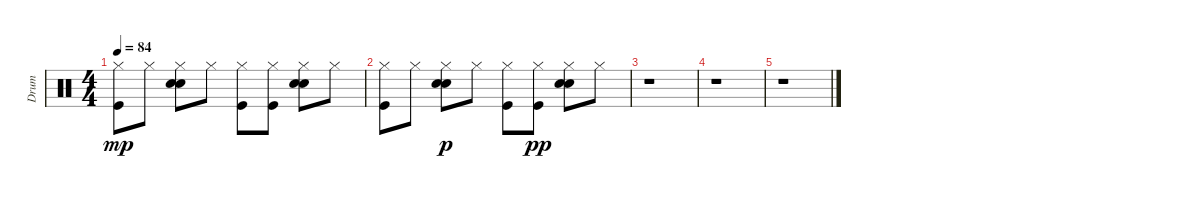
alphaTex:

\track ("Drum" "Drum") {instrument percussion}
\staff {score}
\articulation defaults
\ts (4 4)
\tempo 84
\clef neutral
\ks c
("Hi-Hat (closed)" "Kick (hit)").8{dy mp} "Hi-Hat (closed)".8 ("Hi-Hat (closed)" "Electric Snare (hit)" "Hand Clap (hit)").8 "Hi-Hat (closed)".8 ("Hi-Hat (closed)" "Kick (hit)").8 ("Hi-Hat (closed)" "Kick (hit)").8 ("Hi-Hat (closed)" "Electric Snare (hit)" "Hand Clap (hit)").8 "Hi-Hat (closed)".8 |
("Hi-Hat (closed)" "Kick (hit)").8 "Hi-Hat (closed)".8 ("Hi-Hat (closed)" "Electric Snare (hit)" "Hand Clap (hit)").8{dy p} "Hi-Hat (closed)".8 ("Hi-Hat (closed)" "Kick (hit)").8 ("Hi-Hat (closed)" "Kick (hit)").8{dy pp} ("Hi-Hat (closed)" "Electric Snare (hit)" "Hand Clap (hit)").8 "Hi-Hat (closed)".8 |
r.1 |
r.1 |
r.1
